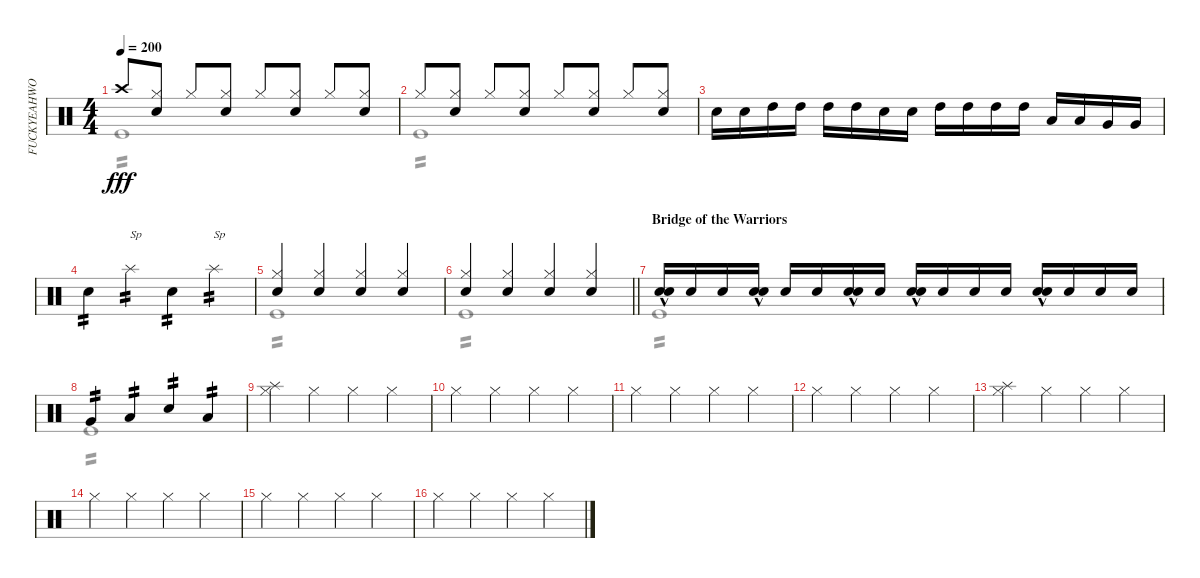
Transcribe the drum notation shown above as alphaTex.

\track ("FUCKYEAHWOOTDAVEMACKINTOSH!(Percussion)" "FUCKYEAHWO") {instrument percussion}
\staff {score}
\articulation defaults
\voice
\ts (4 4)
\tempo 200
\clef neutral
\ks c "Crash high (hit)".8{dy fff}
("Hi-Hat (closed)" "Snare (hit) 2").8 "Hi-Hat (closed)".8 ("Hi-Hat (closed)" "Snare (hit) 2").8 "Hi-Hat (closed)".8 ("Hi-Hat (closed)" "Snare (hit) 2").8 "Hi-Hat (closed)".8 ("Hi-Hat (closed)" "Snare (hit) 2").8 |
"Hi-Hat (closed)".8 ("Hi-Hat (closed)" "Snare (hit) 2").8 "Hi-Hat (closed)".8 ("Hi-Hat (closed)" "Snare (hit) 2").8 "Hi-Hat (closed)".8 ("Hi-Hat (closed)" "Snare (hit) 2").8 "Hi-Hat (closed)".8 ("Hi-Hat (closed)" "Snare (hit) 2").8 |
"Snare (hit) 2".16 "Snare (hit) 2".16 "High Tom (hit)".16 "High Tom (hit)".16 "High Tom (hit)".16 "High Tom (hit)".16 "Snare (hit) 2".16 "Snare (hit) 2".16 "High Tom (hit)".16 "High Tom (hit)".16 "High Tom (hit)".16 "High Tom (hit)".16 "Low Tom (hit)".16 "Low Tom (hit)".16 "Very Low Tom (hit)".16 "Very Low Tom (hit)".16 |
"Snare (hit) 2".4{tp 2} "Splash (hit)".4{txt "Sp" tp 2} "Snare (hit) 2".4{tp 2} "Splash (hit)".4{txt "Sp" tp 2} |
("Snare (hit) 2" "Hi-Hat (closed)").4 ("Snare (hit) 2" "Hi-Hat (closed)").4 ("Snare (hit) 2" "Hi-Hat (closed)").4 ("Snare (hit) 2" "Hi-Hat (closed)").4 |
\barLineRight lightlight
("Snare (hit) 2" "Hi-Hat (closed)").4 ("Snare (hit) 2" "Hi-Hat (closed)").4 ("Snare (hit) 2" "Hi-Hat (closed)").4 ("Snare (hit) 2" "Hi-Hat (closed)").4 |
\section ("" "Bridge of the Warriors")
("Snare (hit) 2"{hac} "Electric Snare (hit)").16 "Snare (hit) 2".16 "Snare (hit) 2".16 ("Snare (hit) 2"{hac} "Electric Snare (hit)").16 "Snare (hit) 2".16 "Snare (hit) 2".16 ("Snare (hit) 2"{hac} "Electric Snare (hit)").16 "Snare (hit) 2".16 ("Snare (hit) 2"{hac} "Electric Snare (hit)").16 "Snare (hit) 2".16 "Snare (hit) 2".16 "Snare (hit) 2".16 ("Snare (hit) 2"{hac} "Electric Snare (hit)").16 "Snare (hit) 2".16 "Snare (hit) 2".16 "Snare (hit) 2".16 |
"Very Low Tom (hit)".4{tp 2} "Low Floor Tom (hit)".4{tp 2} "Snare (hit) 2".4{tp 2} "Low Floor Tom (hit)".4{tp 2} |
("Splash (hit)" "Hi-Hat (closed)").4 "Hi-Hat (closed)".4 "Hi-Hat (closed)".4 "Hi-Hat (closed)".4 |
"Hi-Hat (closed)".4 "Hi-Hat (closed)".4 "Hi-Hat (closed)".4 "Hi-Hat (closed)".4 |
"Hi-Hat (closed)".4 "Hi-Hat (closed)".4 "Hi-Hat (closed)".4 "Hi-Hat (closed)".4 |
"Hi-Hat (closed)".4 "Hi-Hat (closed)".4 "Hi-Hat (closed)".4 "Hi-Hat (closed)".4 |
("Splash (hit)" "Hi-Hat (closed)").4 "Hi-Hat (closed)".4 "Hi-Hat (closed)".4 "Hi-Hat (closed)".4 |
"Hi-Hat (closed)".4 "Hi-Hat (closed)".4 "Hi-Hat (closed)".4 "Hi-Hat (closed)".4 |
"Hi-Hat (closed)".4 "Hi-Hat (closed)".4 "Hi-Hat (closed)".4 "Hi-Hat (closed)".4 |
"Hi-Hat (closed)".4 "Hi-Hat (closed)".4 "Hi-Hat (closed)".4 "Hi-Hat (closed)".4
\voice
\clef neutral
\ottava regular
\simile none
\ks c "Kick (hit)".1{tp 2 dy fff}
|
"Kick (hit)".1{tp 2} |
|
|
"Kick (hit)".1{tp 2} |
\barLineRight lightlight "Kick (hit)".1{tp 2}
|
"Kick (hit)".1{tp 2} |
"Kick (hit)".1{tp 2} |
|
|
|
|
|
|
|
